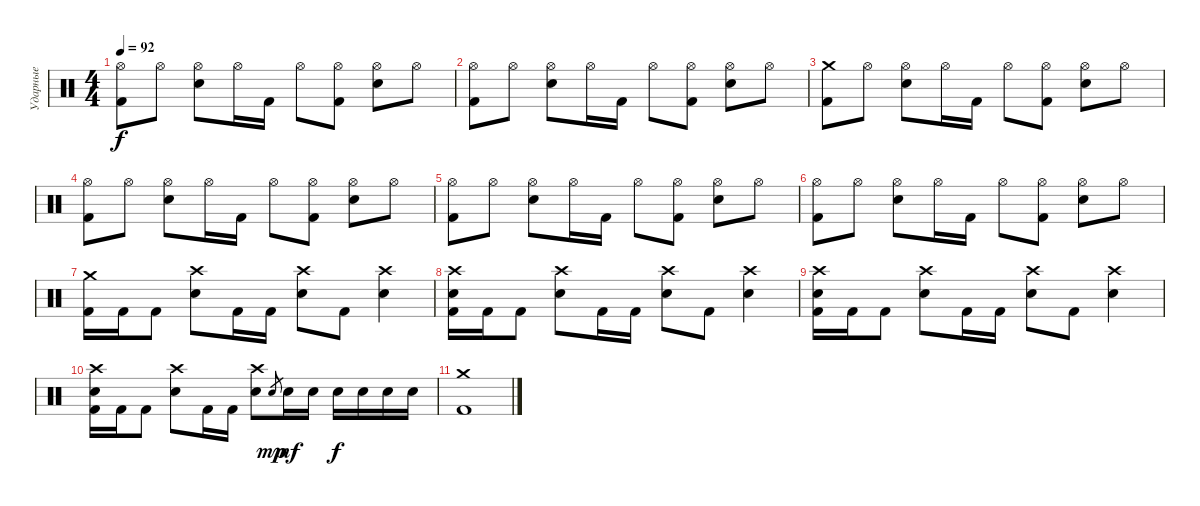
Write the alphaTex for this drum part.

\track ("Ударные" "Ударные") {instrument percussion}
\staff {score}
\articulation defaults
\ts (4 4)
\tempo 92
\clef neutral
\ks c
("Hi-Hat (open)" "Kick (hit) 2").8{dy f} "Hi-Hat (open)".8 ("Hi-Hat (open)" "Electric Snare (hit)").8 "Hi-Hat (open)".16 "Kick (hit) 2".16 "Hi-Hat (open)".8 ("Hi-Hat (open)" "Kick (hit) 2").8 ("Hi-Hat (open)" "Electric Snare (hit)").8 "Hi-Hat (open)".8 |
("Hi-Hat (open)" "Kick (hit) 2").8 "Hi-Hat (open)".8 ("Hi-Hat (open)" "Electric Snare (hit)").8 "Hi-Hat (open)".16 "Kick (hit) 2".16 "Hi-Hat (open)".8 ("Hi-Hat (open)" "Kick (hit) 2").8 ("Hi-Hat (open)" "Electric Snare (hit)").8 "Hi-Hat (open)".8 |
("Crash medium (hit)" "Kick (hit) 2").8 "Hi-Hat (open)".8 ("Hi-Hat (open)" "Electric Snare (hit)").8 "Hi-Hat (open)".16 "Kick (hit) 2".16 "Hi-Hat (open)".8 ("Hi-Hat (open)" "Kick (hit) 2").8 ("Hi-Hat (open)" "Electric Snare (hit)").8 "Hi-Hat (open)".8 |
("Hi-Hat (open)" "Kick (hit) 2").8 "Hi-Hat (open)".8 ("Hi-Hat (open)" "Electric Snare (hit)").8 "Hi-Hat (open)".16 "Kick (hit) 2".16 "Hi-Hat (open)".8 ("Hi-Hat (open)" "Kick (hit) 2").8 ("Hi-Hat (open)" "Electric Snare (hit)").8 "Hi-Hat (open)".8 |
("Hi-Hat (open)" "Kick (hit) 2").8 "Hi-Hat (open)".8 ("Hi-Hat (open)" "Electric Snare (hit)").8 "Hi-Hat (open)".16 "Kick (hit) 2".16 "Hi-Hat (open)".8 ("Hi-Hat (open)" "Kick (hit) 2").8 ("Hi-Hat (open)" "Electric Snare (hit)").8 "Hi-Hat (open)".8 |
("Hi-Hat (open)" "Kick (hit) 2").8 "Hi-Hat (open)".8 ("Hi-Hat (open)" "Electric Snare (hit)").8 "Hi-Hat (open)".16 "Kick (hit) 2".16 "Hi-Hat (open)".8 ("Hi-Hat (open)" "Kick (hit) 2").8 ("Hi-Hat (open)" "Electric Snare (hit)").8 "Hi-Hat (open)".8 |
("Crash medium (hit)" "Kick (hit) 2").16 "Kick (hit) 2".16 "Kick (hit) 2".8 ("Crash high (hit)" "Electric Snare (hit)").8 "Kick (hit) 2".16 "Kick (hit) 2".16 ("Crash high (hit)" "Electric Snare (hit)").8 "Kick (hit) 2".8 ("Crash high (hit)" "Electric Snare (hit)").4 |
("Crash high (hit)" "Electric Snare (hit)" "Kick (hit) 2").16 "Kick (hit) 2".16 "Kick (hit) 2".8 ("Crash high (hit)" "Electric Snare (hit)").8 "Kick (hit) 2".16 "Kick (hit) 2".16 ("Crash high (hit)" "Electric Snare (hit)").8 "Kick (hit) 2".8 ("Crash high (hit)" "Electric Snare (hit)").4 |
("Crash high (hit)" "Electric Snare (hit)" "Kick (hit) 2").16 "Kick (hit) 2".16 "Kick (hit) 2".8 ("Crash high (hit)" "Electric Snare (hit)").8 "Kick (hit) 2".16 "Kick (hit) 2".16 ("Crash high (hit)" "Electric Snare (hit)").8 "Kick (hit) 2".8 ("Crash high (hit)" "Electric Snare (hit)").4 |
("Crash high (hit)" "Electric Snare (hit)" "Kick (hit) 2").16 "Kick (hit) 2".16 "Kick (hit) 2".8 ("Crash high (hit)" "Electric Snare (hit)").8 "Kick (hit) 2".16 "Kick (hit) 2".16 ("Crash high (hit)" "Electric Snare (hit)").8 "Electric Snare (hit)".8{gr dy mp} "Electric Snare (hit)".16{dy mf} "Electric Snare (hit)".16 "Electric Snare (hit)".16{dy f} "Electric Snare (hit)".16 "Electric Snare (hit)".16 "Electric Snare (hit)".16 |
("Crash medium (hit)" "Kick (hit) 2").1
